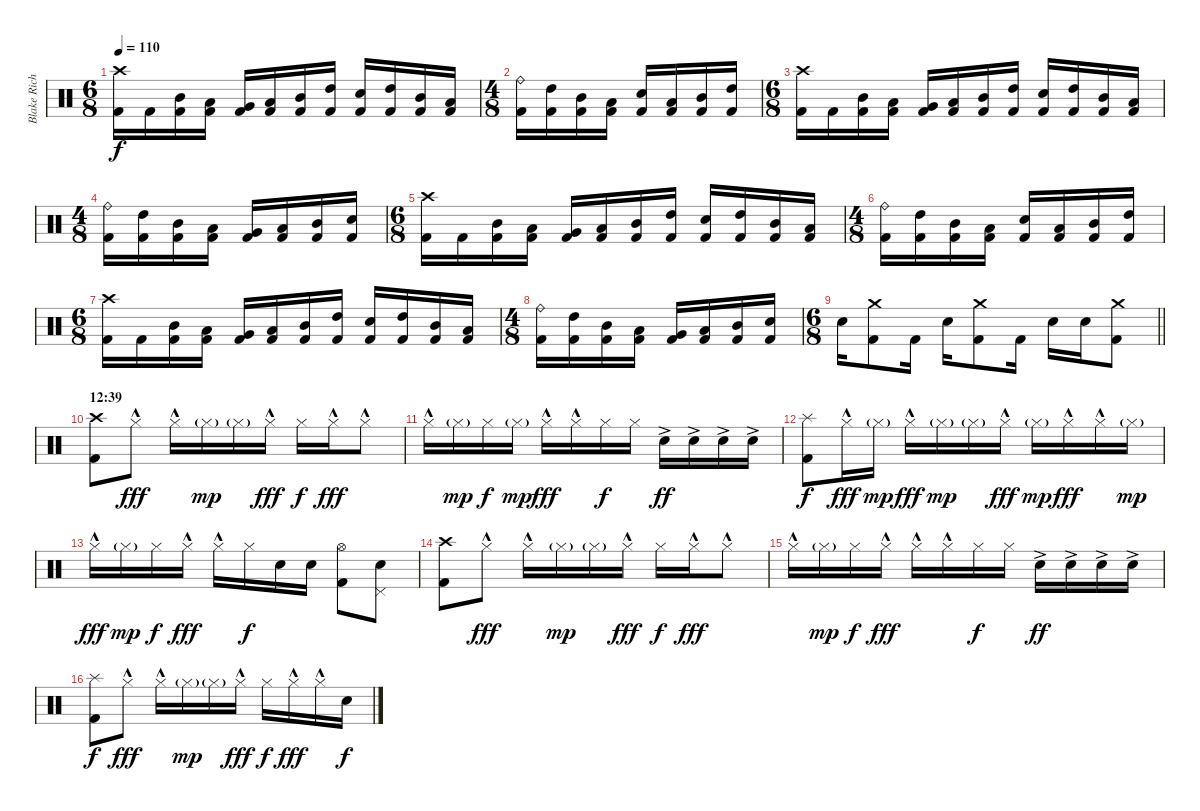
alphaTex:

\track ("Blake Richardson" "Blake Rich") {instrument percussion}
\staff {score}
\articulation defaults
\ts (6 8)
\tempo 110
\clef neutral
\ks c
("Crash high (hit)" "Kick (hit) 2").16{dy f} "Kick (hit) 2".16 ("Mid Tom (hit)" "Kick (hit) 2").16 ("Low Tom (hit)" "Kick (hit) 2").16{beam split} ("Very Low Tom (hit)" "Kick (hit) 2").16 ("Low Tom (hit)" "Kick (hit) 2").16{beam merge} ("Mid Tom (hit)" "Kick (hit) 2").16 ("High Tom (hit)" "Kick (hit) 2").16{beam split} ("Electric Snare (hit)" "Kick (hit) 2").16 ("High Tom (hit)" "Kick (hit) 2").16 ("Mid Tom (hit)" "Kick (hit) 2").16 ("Low Tom (hit)" "Kick (hit) 2").16 |
\ts (4 8)
("Ride (bell)" "Kick (hit) 2").16 ("High Tom (hit)" "Kick (hit) 2").16{beam merge} ("Mid Tom (hit)" "Kick (hit) 2").16 ("Low Tom (hit)" "Kick (hit) 2").16 ("Electric Snare (hit)" "Kick (hit) 2").16 ("Low Tom (hit)" "Kick (hit) 2").16{beam merge} ("Mid Tom (hit)" "Kick (hit) 2").16 ("High Tom (hit)" "Kick (hit) 2").16 |
\ts (6 8)
("Crash high (hit)" "Kick (hit) 2").16 "Kick (hit) 2".16 ("Mid Tom (hit)" "Kick (hit) 2").16 ("Low Tom (hit)" "Kick (hit) 2").16{beam split} ("Very Low Tom (hit)" "Kick (hit) 2").16 ("Low Tom (hit)" "Kick (hit) 2").16{beam merge} ("Mid Tom (hit)" "Kick (hit) 2").16 ("High Tom (hit)" "Kick (hit) 2").16{beam split} ("Electric Snare (hit)" "Kick (hit) 2").16 ("High Tom (hit)" "Kick (hit) 2").16 ("Mid Tom (hit)" "Kick (hit) 2").16 ("Low Tom (hit)" "Kick (hit) 2").16 |
\ts (4 8)
("Ride (bell)" "Kick (hit) 2").16 ("High Tom (hit)" "Kick (hit) 2").16{beam merge} ("Mid Tom (hit)" "Kick (hit) 2").16 ("Low Tom (hit)" "Kick (hit) 2").16 ("Very Low Tom (hit)" "Kick (hit) 2").16 ("Low Tom (hit)" "Kick (hit) 2").16{beam merge} ("Mid Tom (hit)" "Kick (hit) 2").16 ("Electric Snare (hit)" "Kick (hit) 2").16 |
\ts (6 8)
("Crash high (hit)" "Kick (hit) 2").16 "Kick (hit) 2".16 ("Mid Tom (hit)" "Kick (hit) 2").16 ("Low Tom (hit)" "Kick (hit) 2").16{beam split} ("Very Low Tom (hit)" "Kick (hit) 2").16 ("Low Tom (hit)" "Kick (hit) 2").16{beam merge} ("Mid Tom (hit)" "Kick (hit) 2").16 ("High Tom (hit)" "Kick (hit) 2").16{beam split} ("Electric Snare (hit)" "Kick (hit) 2").16 ("High Tom (hit)" "Kick (hit) 2").16 ("Mid Tom (hit)" "Kick (hit) 2").16 ("Low Tom (hit)" "Kick (hit) 2").16 |
\ts (4 8)
("Ride (bell)" "Kick (hit) 2").16 ("High Tom (hit)" "Kick (hit) 2").16{beam merge} ("Mid Tom (hit)" "Kick (hit) 2").16 ("Low Tom (hit)" "Kick (hit) 2").16 ("Electric Snare (hit)" "Kick (hit) 2").16 ("Low Tom (hit)" "Kick (hit) 2").16{beam merge} ("Mid Tom (hit)" "Kick (hit) 2").16 ("High Tom (hit)" "Kick (hit) 2").16 |
\ts (6 8)
("Crash high (hit)" "Kick (hit) 2").16 "Kick (hit) 2".16 ("Mid Tom (hit)" "Kick (hit) 2").16 ("Low Tom (hit)" "Kick (hit) 2").16{beam split} ("Very Low Tom (hit)" "Kick (hit) 2").16 ("Low Tom (hit)" "Kick (hit) 2").16{beam merge} ("Mid Tom (hit)" "Kick (hit) 2").16 ("High Tom (hit)" "Kick (hit) 2").16{beam split} ("Electric Snare (hit)" "Kick (hit) 2").16 ("High Tom (hit)" "Kick (hit) 2").16 ("Mid Tom (hit)" "Kick (hit) 2").16 ("Low Tom (hit)" "Kick (hit) 2").16 |
\ts (4 8)
("Ride (bell)" "Kick (hit) 2").16 ("High Tom (hit)" "Kick (hit) 2").16{beam merge} ("Mid Tom (hit)" "Kick (hit) 2").16 ("Low Tom (hit)" "Kick (hit) 2").16 ("Very Low Tom (hit)" "Kick (hit) 2").16 ("Low Tom (hit)" "Kick (hit) 2").16{beam merge} ("Mid Tom (hit)" "Kick (hit) 2").16 ("Electric Snare (hit)" "Kick (hit) 2").16 |
\ts (6 8)
\barLineRight lightlight "Electric Snare (hit)".16
("Crash medium (hit)" "Kick (hit) 2").8 "Kick (hit) 2".16{beam split} "Electric Snare (hit)".16 ("Crash medium (hit)" "Kick (hit) 2").8{beam merge} "Kick (hit) 2".16{beam split} "Electric Snare (hit)".16 "Electric Snare (hit)".16 ("Crash medium (hit)" "Kick (hit) 2").8 |
\section ("" "12:39")
("Crash high (hit)" "Kick (hit) 2").8 "Hi-Hat (closed)"{hac}.8{dy fff beam split} "Hi-Hat (closed)"{hac}.16 "Hi-Hat (closed)"{g}.16{dy mp beam merge} "Hi-Hat (closed)"{g}.16 "Hi-Hat (closed)"{hac}.16{dy fff beam split} "Hi-Hat (closed)".16{dy f} "Hi-Hat (closed)"{hac}.16{dy fff} "Hi-Hat (closed)"{hac}.8 |
"Hi-Hat (closed)"{hac}.16 "Hi-Hat (closed)"{g}.16{dy mp} "Hi-Hat (closed)".16{dy f} "Hi-Hat (closed)"{g}.16{dy mp beam split} "Hi-Hat (closed)"{hac}.16{dy fff} "Hi-Hat (closed)"{hac}.16{beam merge} "Hi-Hat (closed)".16{dy f} "Hi-Hat (closed)".16{beam split} "Electric Snare (hit)"{ac}.16{dy ff} "Electric Snare (hit)"{ac}.16 "Electric Snare (hit)"{ac}.16 "Electric Snare (hit)"{ac}.16 |
("Splash (hit)" "Kick (hit) 2").8{dy f} "Hi-Hat (closed)"{hac}.16{dy fff} "Hi-Hat (closed)"{g}.16{dy mp beam split} "Hi-Hat (closed)"{hac}.16{dy fff} "Hi-Hat (closed)"{g}.16{dy mp beam merge} "Hi-Hat (closed)"{g}.16 "Hi-Hat (closed)"{hac}.16{dy fff beam split} "Hi-Hat (closed)"{g}.16{dy mp} "Hi-Hat (closed)"{hac}.16{dy fff} "Hi-Hat (closed)"{hac}.16 "Hi-Hat (closed)"{g}.16{dy mp} |
"Hi-Hat (closed)"{hac}.16{dy fff} "Hi-Hat (closed)"{g}.16{dy mp} "Hi-Hat (closed)".16{dy f} "Hi-Hat (closed)"{hac}.16{dy fff beam split} "Hi-Hat (closed)"{hac}.16 "Hi-Hat (closed)".16{dy f beam merge} "Electric Snare (hit)".16 "Electric Snare (hit)".16{beam split} ("Hi-Hat (open)" "Kick (hit) 2").8 ("Electric Snare (hit)" "Pedal Hi-Hat (hit)").8 |
("Crash high (hit)" "Kick (hit) 2").8 "Hi-Hat (closed)"{hac}.8{dy fff beam split} "Hi-Hat (closed)"{hac}.16 "Hi-Hat (closed)"{g}.16{dy mp beam merge} "Hi-Hat (closed)"{g}.16 "Hi-Hat (closed)"{hac}.16{dy fff beam split} "Hi-Hat (closed)".16{dy f} "Hi-Hat (closed)"{hac}.16{dy fff} "Hi-Hat (closed)"{hac}.8 |
"Hi-Hat (closed)"{hac}.16 "Hi-Hat (closed)"{g}.16{dy mp} "Hi-Hat (closed)".16{dy f} "Hi-Hat (closed)"{hac}.16{dy fff beam split} "Hi-Hat (closed)"{hac}.16 "Hi-Hat (closed)"{hac}.16{beam merge} "Hi-Hat (closed)".16{dy f} "Hi-Hat (closed)".16{beam split} "Electric Snare (hit)"{ac}.16{dy ff} "Electric Snare (hit)"{ac}.16 "Electric Snare (hit)"{ac}.16 "Electric Snare (hit)"{ac}.16 |
("Splash (hit)" "Kick (hit) 2").8{dy f} "Hi-Hat (closed)"{hac}.8{dy fff beam split} "Hi-Hat (closed)"{hac}.16 "Hi-Hat (closed)"{g}.16{dy mp beam merge} "Hi-Hat (closed)"{g}.16 "Hi-Hat (closed)"{hac}.16{dy fff beam split} "Hi-Hat (closed)".16{dy f} "Hi-Hat (closed)"{hac}.16{dy fff} "Hi-Hat (closed)"{hac}.16 "Electric Snare (hit)".16{dy f}
